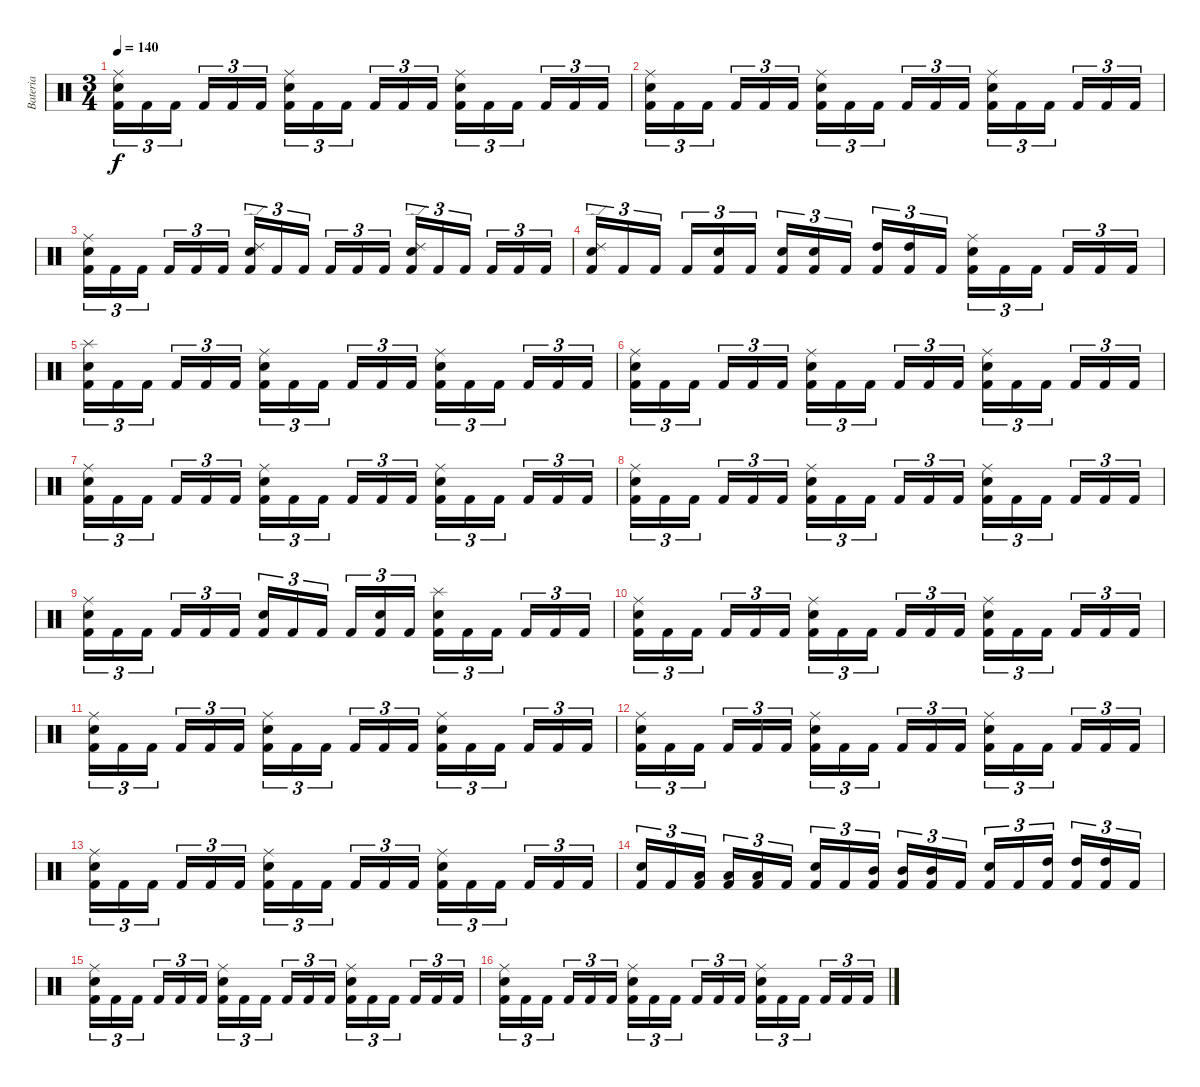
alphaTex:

\track ("Bateria" "Bateria") {instrument percussion}
\staff {score}
\articulation defaults
\ts (3 4)
\tempo 140
\clef neutral
\ks c
("Kick (hit) 2" "Electric Snare (hit)" "Ride (middle)").16{tu (3 2) dy f} "Kick (hit) 2".16{tu (3 2)} "Kick (hit) 2".16{tu (3 2)} "Kick (hit) 2".16{tu (3 2)} "Kick (hit) 2".16{tu (3 2)} "Kick (hit) 2".16{tu (3 2)} ("Kick (hit) 2" "Electric Snare (hit)" "Ride (middle)").16{tu (3 2)} "Kick (hit) 2".16{tu (3 2)} "Kick (hit) 2".16{tu (3 2)} "Kick (hit) 2".16{tu (3 2)} "Kick (hit) 2".16{tu (3 2)} "Kick (hit) 2".16{tu (3 2)} ("Kick (hit) 2" "Electric Snare (hit)" "Ride (middle)").16{tu (3 2)} "Kick (hit) 2".16{tu (3 2)} "Kick (hit) 2".16{tu (3 2)} "Kick (hit) 2".16{tu (3 2)} "Kick (hit) 2".16{tu (3 2)} "Kick (hit) 2".16{tu (3 2)} |
("Kick (hit) 2" "Electric Snare (hit)" "Ride (middle)").16{tu (3 2)} "Kick (hit) 2".16{tu (3 2)} "Kick (hit) 2".16{tu (3 2)} "Kick (hit) 2".16{tu (3 2)} "Kick (hit) 2".16{tu (3 2)} "Kick (hit) 2".16{tu (3 2)} ("Kick (hit) 2" "Electric Snare (hit)" "Ride (middle)").16{tu (3 2)} "Kick (hit) 2".16{tu (3 2)} "Kick (hit) 2".16{tu (3 2)} "Kick (hit) 2".16{tu (3 2)} "Kick (hit) 2".16{tu (3 2)} "Kick (hit) 2".16{tu (3 2)} ("Kick (hit) 2" "Electric Snare (hit)" "Ride (middle)").16{tu (3 2)} "Kick (hit) 2".16{tu (3 2)} "Kick (hit) 2".16{tu (3 2)} "Kick (hit) 2".16{tu (3 2)} "Kick (hit) 2".16{tu (3 2)} "Kick (hit) 2".16{tu (3 2)} |
("Kick (hit) 2" "Electric Snare (hit)" "Ride (middle)").16{tu (3 2)} "Kick (hit) 2".16{tu (3 2)} "Kick (hit) 2".16{tu (3 2)} "Kick (hit) 2".16{tu (3 2)} "Kick (hit) 2".16{tu (3 2)} "Kick (hit) 2".16{tu (3 2)} ("Kick (hit) 2" "Electric Snare (hit)" "Ride (edge) 2").16{tu (3 2)} "Kick (hit) 2".16{tu (3 2)} "Kick (hit) 2".16{tu (3 2)} "Kick (hit) 2".16{tu (3 2)} "Kick (hit) 2".16{tu (3 2)} "Kick (hit) 2".16{tu (3 2)} ("Kick (hit) 2" "Electric Snare (hit)" "Ride (edge) 2").16{tu (3 2)} "Kick (hit) 2".16{tu (3 2)} "Kick (hit) 2".16{tu (3 2)} "Kick (hit) 2".16{tu (3 2)} "Kick (hit) 2".16{tu (3 2)} "Kick (hit) 2".16{tu (3 2)} |
("Kick (hit) 2" "Electric Snare (hit)" "Ride (edge) 2").16{tu (3 2)} "Kick (hit) 2".16{tu (3 2)} "Kick (hit) 2".16{tu (3 2)} "Kick (hit) 2".16{tu (3 2)} ("Kick (hit) 2" "Electric Snare (hit)").16{tu (3 2)} "Kick (hit) 2".16{tu (3 2)} ("Kick (hit) 2" "Electric Snare (hit)").16{tu (3 2)} ("Kick (hit) 2" "Electric Snare (hit)").16{tu (3 2)} "Kick (hit) 2".16{tu (3 2)} ("Kick (hit) 2" "High Tom (hit)").16{tu (3 2)} ("Kick (hit) 2" "High Tom (hit)").16{tu (3 2)} "Kick (hit) 2".16{tu (3 2)} ("Kick (hit) 2" "Electric Snare (hit)" "Ride (middle)").16{tu (3 2)} "Kick (hit) 2".16{tu (3 2)} "Kick (hit) 2".16{tu (3 2)} "Kick (hit) 2".16{tu (3 2)} "Kick (hit) 2".16{tu (3 2)} "Kick (hit) 2".16{tu (3 2)} |
("Kick (hit) 2" "Electric Snare (hit)" "Splash (hit)").16{tu (3 2)} "Kick (hit) 2".16{tu (3 2)} "Kick (hit) 2".16{tu (3 2)} "Kick (hit) 2".16{tu (3 2)} "Kick (hit) 2".16{tu (3 2)} "Kick (hit) 2".16{tu (3 2)} ("Kick (hit) 2" "Electric Snare (hit)" "Ride (middle)").16{tu (3 2)} "Kick (hit) 2".16{tu (3 2)} "Kick (hit) 2".16{tu (3 2)} "Kick (hit) 2".16{tu (3 2)} "Kick (hit) 2".16{tu (3 2)} "Kick (hit) 2".16{tu (3 2)} ("Kick (hit) 2" "Electric Snare (hit)" "Ride (middle)").16{tu (3 2)} "Kick (hit) 2".16{tu (3 2)} "Kick (hit) 2".16{tu (3 2)} "Kick (hit) 2".16{tu (3 2)} "Kick (hit) 2".16{tu (3 2)} "Kick (hit) 2".16{tu (3 2)} |
("Kick (hit) 2" "Electric Snare (hit)" "Ride (middle)").16{tu (3 2)} "Kick (hit) 2".16{tu (3 2)} "Kick (hit) 2".16{tu (3 2)} "Kick (hit) 2".16{tu (3 2)} "Kick (hit) 2".16{tu (3 2)} "Kick (hit) 2".16{tu (3 2)} ("Kick (hit) 2" "Electric Snare (hit)" "Ride (middle)").16{tu (3 2)} "Kick (hit) 2".16{tu (3 2)} "Kick (hit) 2".16{tu (3 2)} "Kick (hit) 2".16{tu (3 2)} "Kick (hit) 2".16{tu (3 2)} "Kick (hit) 2".16{tu (3 2)} ("Kick (hit) 2" "Electric Snare (hit)" "Ride (middle)").16{tu (3 2)} "Kick (hit) 2".16{tu (3 2)} "Kick (hit) 2".16{tu (3 2)} "Kick (hit) 2".16{tu (3 2)} "Kick (hit) 2".16{tu (3 2)} "Kick (hit) 2".16{tu (3 2)} |
("Kick (hit) 2" "Electric Snare (hit)" "Ride (middle)").16{tu (3 2)} "Kick (hit) 2".16{tu (3 2)} "Kick (hit) 2".16{tu (3 2)} "Kick (hit) 2".16{tu (3 2)} "Kick (hit) 2".16{tu (3 2)} "Kick (hit) 2".16{tu (3 2)} ("Kick (hit) 2" "Electric Snare (hit)" "Ride (middle)").16{tu (3 2)} "Kick (hit) 2".16{tu (3 2)} "Kick (hit) 2".16{tu (3 2)} "Kick (hit) 2".16{tu (3 2)} "Kick (hit) 2".16{tu (3 2)} "Kick (hit) 2".16{tu (3 2)} ("Kick (hit) 2" "Electric Snare (hit)" "Ride (middle)").16{tu (3 2)} "Kick (hit) 2".16{tu (3 2)} "Kick (hit) 2".16{tu (3 2)} "Kick (hit) 2".16{tu (3 2)} "Kick (hit) 2".16{tu (3 2)} "Kick (hit) 2".16{tu (3 2)} |
("Kick (hit) 2" "Electric Snare (hit)" "Ride (middle)").16{tu (3 2)} "Kick (hit) 2".16{tu (3 2)} "Kick (hit) 2".16{tu (3 2)} "Kick (hit) 2".16{tu (3 2)} "Kick (hit) 2".16{tu (3 2)} "Kick (hit) 2".16{tu (3 2)} ("Kick (hit) 2" "Electric Snare (hit)" "Ride (middle)").16{tu (3 2)} "Kick (hit) 2".16{tu (3 2)} "Kick (hit) 2".16{tu (3 2)} "Kick (hit) 2".16{tu (3 2)} "Kick (hit) 2".16{tu (3 2)} "Kick (hit) 2".16{tu (3 2)} ("Kick (hit) 2" "Electric Snare (hit)" "Ride (middle)").16{tu (3 2)} "Kick (hit) 2".16{tu (3 2)} "Kick (hit) 2".16{tu (3 2)} "Kick (hit) 2".16{tu (3 2)} "Kick (hit) 2".16{tu (3 2)} "Kick (hit) 2".16{tu (3 2)} |
("Kick (hit) 2" "Electric Snare (hit)" "Ride (middle)").16{tu (3 2)} "Kick (hit) 2".16{tu (3 2)} "Kick (hit) 2".16{tu (3 2)} "Kick (hit) 2".16{tu (3 2)} "Kick (hit) 2".16{tu (3 2)} "Kick (hit) 2".16{tu (3 2)} ("Kick (hit) 2" "Electric Snare (hit)").16{tu (3 2)} "Kick (hit) 2".16{tu (3 2)} "Kick (hit) 2".16{tu (3 2)} "Kick (hit) 2".16{tu (3 2)} ("Kick (hit) 2" "Electric Snare (hit)").16{tu (3 2)} "Kick (hit) 2".16{tu (3 2)} ("Kick (hit) 2" "Electric Snare (hit)" "Splash (hit)").16{tu (3 2)} "Kick (hit) 2".16{tu (3 2)} "Kick (hit) 2".16{tu (3 2)} "Kick (hit) 2".16{tu (3 2)} "Kick (hit) 2".16{tu (3 2)} "Kick (hit) 2".16{tu (3 2)} |
("Kick (hit) 2" "Electric Snare (hit)" "Ride (middle)").16{tu (3 2)} "Kick (hit) 2".16{tu (3 2)} "Kick (hit) 2".16{tu (3 2)} "Kick (hit) 2".16{tu (3 2)} "Kick (hit) 2".16{tu (3 2)} "Kick (hit) 2".16{tu (3 2)} ("Kick (hit) 2" "Electric Snare (hit)" "Ride (middle)").16{tu (3 2)} "Kick (hit) 2".16{tu (3 2)} "Kick (hit) 2".16{tu (3 2)} "Kick (hit) 2".16{tu (3 2)} "Kick (hit) 2".16{tu (3 2)} "Kick (hit) 2".16{tu (3 2)} ("Kick (hit) 2" "Electric Snare (hit)" "Ride (middle)").16{tu (3 2)} "Kick (hit) 2".16{tu (3 2)} "Kick (hit) 2".16{tu (3 2)} "Kick (hit) 2".16{tu (3 2)} "Kick (hit) 2".16{tu (3 2)} "Kick (hit) 2".16{tu (3 2)} |
("Kick (hit) 2" "Electric Snare (hit)" "Ride (middle)").16{tu (3 2)} "Kick (hit) 2".16{tu (3 2)} "Kick (hit) 2".16{tu (3 2)} "Kick (hit) 2".16{tu (3 2)} "Kick (hit) 2".16{tu (3 2)} "Kick (hit) 2".16{tu (3 2)} ("Kick (hit) 2" "Electric Snare (hit)" "Ride (middle)").16{tu (3 2)} "Kick (hit) 2".16{tu (3 2)} "Kick (hit) 2".16{tu (3 2)} "Kick (hit) 2".16{tu (3 2)} "Kick (hit) 2".16{tu (3 2)} "Kick (hit) 2".16{tu (3 2)} ("Kick (hit) 2" "Electric Snare (hit)" "Ride (middle)").16{tu (3 2)} "Kick (hit) 2".16{tu (3 2)} "Kick (hit) 2".16{tu (3 2)} "Kick (hit) 2".16{tu (3 2)} "Kick (hit) 2".16{tu (3 2)} "Kick (hit) 2".16{tu (3 2)} |
("Kick (hit) 2" "Electric Snare (hit)" "Ride (middle)").16{tu (3 2)} "Kick (hit) 2".16{tu (3 2)} "Kick (hit) 2".16{tu (3 2)} "Kick (hit) 2".16{tu (3 2)} "Kick (hit) 2".16{tu (3 2)} "Kick (hit) 2".16{tu (3 2)} ("Kick (hit) 2" "Electric Snare (hit)" "Ride (middle)").16{tu (3 2)} "Kick (hit) 2".16{tu (3 2)} "Kick (hit) 2".16{tu (3 2)} "Kick (hit) 2".16{tu (3 2)} "Kick (hit) 2".16{tu (3 2)} "Kick (hit) 2".16{tu (3 2)} ("Kick (hit) 2" "Electric Snare (hit)" "Ride (middle)").16{tu (3 2)} "Kick (hit) 2".16{tu (3 2)} "Kick (hit) 2".16{tu (3 2)} "Kick (hit) 2".16{tu (3 2)} "Kick (hit) 2".16{tu (3 2)} "Kick (hit) 2".16{tu (3 2)} |
("Kick (hit) 2" "Electric Snare (hit)" "Ride (middle)").16{tu (3 2)} "Kick (hit) 2".16{tu (3 2)} "Kick (hit) 2".16{tu (3 2)} "Kick (hit) 2".16{tu (3 2)} "Kick (hit) 2".16{tu (3 2)} "Kick (hit) 2".16{tu (3 2)} ("Kick (hit) 2" "Electric Snare (hit)" "Ride (middle)").16{tu (3 2)} "Kick (hit) 2".16{tu (3 2)} "Kick (hit) 2".16{tu (3 2)} "Kick (hit) 2".16{tu (3 2)} "Kick (hit) 2".16{tu (3 2)} "Kick (hit) 2".16{tu (3 2)} ("Kick (hit) 2" "Electric Snare (hit)" "Ride (middle)").16{tu (3 2)} "Kick (hit) 2".16{tu (3 2)} "Kick (hit) 2".16{tu (3 2)} "Kick (hit) 2".16{tu (3 2)} "Kick (hit) 2".16{tu (3 2)} "Kick (hit) 2".16{tu (3 2)} |
("Kick (hit) 2" "Electric Snare (hit)").16{tu (3 2)} "Kick (hit) 2".16{tu (3 2)} ("Kick (hit) 2" "Low Tom (hit)").16{tu (3 2)} ("Kick (hit) 2" "Low Tom (hit)").16{tu (3 2)} ("Kick (hit) 2" "Low Tom (hit)").16{tu (3 2)} "Kick (hit) 2".16{tu (3 2)} ("Kick (hit) 2" "Electric Snare (hit)").16{tu (3 2)} "Kick (hit) 2".16{tu (3 2)} ("Kick (hit) 2" "Mid Tom (hit)").16{tu (3 2)} ("Kick (hit) 2" "Mid Tom (hit)").16{tu (3 2)} ("Kick (hit) 2" "Mid Tom (hit)").16{tu (3 2)} "Kick (hit) 2".16{tu (3 2)} ("Kick (hit) 2" "Electric Snare (hit)").16{tu (3 2)} "Kick (hit) 2".16{tu (3 2)} ("Kick (hit) 2" "High Tom (hit)").16{tu (3 2)} ("Kick (hit) 2" "High Tom (hit)").16{tu (3 2)} ("Kick (hit) 2" "High Tom (hit)").16{tu (3 2)} "Kick (hit) 2".16{tu (3 2)} |
("Kick (hit) 2" "Electric Snare (hit)" "Ride (middle)").16{tu (3 2)} "Kick (hit) 2".16{tu (3 2)} "Kick (hit) 2".16{tu (3 2)} "Kick (hit) 2".16{tu (3 2)} "Kick (hit) 2".16{tu (3 2)} "Kick (hit) 2".16{tu (3 2)} ("Kick (hit) 2" "Electric Snare (hit)" "Ride (middle)").16{tu (3 2)} "Kick (hit) 2".16{tu (3 2)} "Kick (hit) 2".16{tu (3 2)} "Kick (hit) 2".16{tu (3 2)} "Kick (hit) 2".16{tu (3 2)} "Kick (hit) 2".16{tu (3 2)} ("Kick (hit) 2" "Electric Snare (hit)" "Ride (middle)").16{tu (3 2)} "Kick (hit) 2".16{tu (3 2)} "Kick (hit) 2".16{tu (3 2)} "Kick (hit) 2".16{tu (3 2)} "Kick (hit) 2".16{tu (3 2)} "Kick (hit) 2".16{tu (3 2)} |
("Kick (hit) 2" "Electric Snare (hit)" "Ride (middle)").16{tu (3 2)} "Kick (hit) 2".16{tu (3 2)} "Kick (hit) 2".16{tu (3 2)} "Kick (hit) 2".16{tu (3 2)} "Kick (hit) 2".16{tu (3 2)} "Kick (hit) 2".16{tu (3 2)} ("Kick (hit) 2" "Electric Snare (hit)" "Ride (middle)").16{tu (3 2)} "Kick (hit) 2".16{tu (3 2)} "Kick (hit) 2".16{tu (3 2)} "Kick (hit) 2".16{tu (3 2)} "Kick (hit) 2".16{tu (3 2)} "Kick (hit) 2".16{tu (3 2)} ("Kick (hit) 2" "Electric Snare (hit)" "Ride (middle)").16{tu (3 2)} "Kick (hit) 2".16{tu (3 2)} "Kick (hit) 2".16{tu (3 2)} "Kick (hit) 2".16{tu (3 2)} "Kick (hit) 2".16{tu (3 2)} "Kick (hit) 2".16{tu (3 2)}
